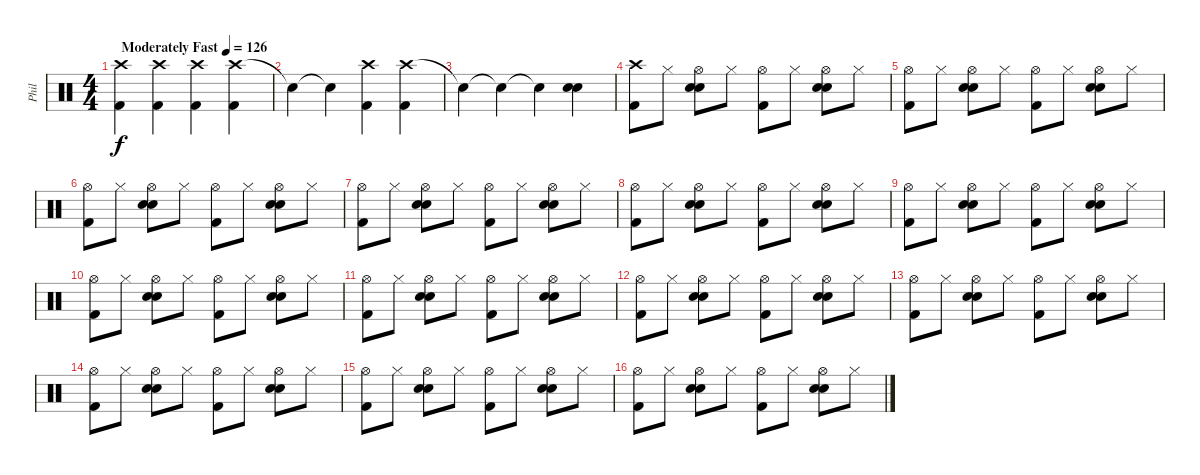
\track ("Phil" "Phil") {instrument percussion}
\staff {score}
\articulation defaults
\ts (4 4)
\tempo (126 "Moderately Fast")
\clef neutral
\ks c
("Crash high (hit)" "Kick (hit) 2").4{dy f} ("Crash high (hit)" "Kick (hit) 2").4 ("Crash high (hit)" "Kick (hit) 2").4 ("Crash high (hit)" "Kick (hit) 2").4 |
"Snare (hit)"{t}.4 "Snare (hit)"{t}.4 ("Crash high (hit)" "Kick (hit) 2").4 ("Crash high (hit)" "Kick (hit) 2").4 |
"Snare (hit)"{t}.4 "Snare (hit)"{t}.4 "Snare (hit)"{t}.4 ("Snare (hit) 2" "Electric Snare (hit)").4 |
("Crash high (hit)" "Kick (hit) 2").8 "Hi-Hat (closed)".8 ("Hi-Hat (open)" "Snare (hit) 2" "Electric Snare (hit)").8 "Hi-Hat (closed)".8 ("Hi-Hat (open)" "Kick (hit) 2").8 "Hi-Hat (closed)".8 ("Hi-Hat (open)" "Snare (hit) 2" "Electric Snare (hit)").8 "Hi-Hat (closed)".8 |
("Hi-Hat (open)" "Kick (hit) 2").8 "Hi-Hat (closed)".8 ("Hi-Hat (open)" "Snare (hit) 2" "Electric Snare (hit)").8 "Hi-Hat (closed)".8 ("Hi-Hat (open)" "Kick (hit) 2").8 "Hi-Hat (closed)".8 ("Hi-Hat (open)" "Snare (hit) 2" "Electric Snare (hit)").8 "Hi-Hat (closed)".8 |
("Hi-Hat (open)" "Kick (hit) 2").8 "Hi-Hat (closed)".8 ("Hi-Hat (open)" "Snare (hit) 2" "Electric Snare (hit)").8 "Hi-Hat (closed)".8 ("Hi-Hat (open)" "Kick (hit) 2").8 "Hi-Hat (closed)".8 ("Hi-Hat (open)" "Snare (hit) 2" "Electric Snare (hit)").8 "Hi-Hat (closed)".8 |
("Hi-Hat (open)" "Kick (hit) 2").8 "Hi-Hat (closed)".8 ("Hi-Hat (open)" "Snare (hit) 2" "Electric Snare (hit)").8 "Hi-Hat (closed)".8 ("Hi-Hat (open)" "Kick (hit) 2").8 "Hi-Hat (closed)".8 ("Hi-Hat (open)" "Snare (hit) 2" "Electric Snare (hit)").8 "Hi-Hat (closed)".8 |
("Hi-Hat (open)" "Kick (hit) 2").8 "Hi-Hat (closed)".8 ("Hi-Hat (open)" "Snare (hit) 2" "Electric Snare (hit)").8 "Hi-Hat (closed)".8 ("Hi-Hat (open)" "Kick (hit) 2").8 "Hi-Hat (closed)".8 ("Hi-Hat (open)" "Snare (hit) 2" "Electric Snare (hit)").8 "Hi-Hat (closed)".8 |
("Hi-Hat (open)" "Kick (hit) 2").8 "Hi-Hat (closed)".8 ("Hi-Hat (open)" "Snare (hit) 2" "Electric Snare (hit)").8 "Hi-Hat (closed)".8 ("Hi-Hat (open)" "Kick (hit) 2").8 "Hi-Hat (closed)".8 ("Hi-Hat (open)" "Snare (hit) 2" "Electric Snare (hit)").8 "Hi-Hat (closed)".8 |
("Hi-Hat (open)" "Kick (hit) 2").8 "Hi-Hat (closed)".8 ("Hi-Hat (open)" "Snare (hit) 2" "Electric Snare (hit)").8 "Hi-Hat (closed)".8 ("Hi-Hat (open)" "Kick (hit) 2").8 "Hi-Hat (closed)".8 ("Hi-Hat (open)" "Snare (hit) 2" "Electric Snare (hit)").8 "Hi-Hat (closed)".8 |
("Hi-Hat (open)" "Kick (hit) 2").8 "Hi-Hat (closed)".8 ("Hi-Hat (open)" "Snare (hit) 2" "Electric Snare (hit)").8 "Hi-Hat (closed)".8 ("Hi-Hat (open)" "Kick (hit) 2").8 "Hi-Hat (closed)".8 ("Hi-Hat (open)" "Snare (hit) 2" "Electric Snare (hit)").8 "Hi-Hat (closed)".8 |
("Hi-Hat (open)" "Kick (hit) 2").8 "Hi-Hat (closed)".8 ("Hi-Hat (open)" "Snare (hit) 2" "Electric Snare (hit)").8 "Hi-Hat (closed)".8 ("Hi-Hat (open)" "Kick (hit) 2").8 "Hi-Hat (closed)".8 ("Hi-Hat (open)" "Snare (hit) 2" "Electric Snare (hit)").8 "Hi-Hat (closed)".8 |
("Hi-Hat (open)" "Kick (hit) 2").8 "Hi-Hat (closed)".8 ("Hi-Hat (open)" "Snare (hit) 2" "Electric Snare (hit)").8 "Hi-Hat (closed)".8 ("Hi-Hat (open)" "Kick (hit) 2").8 "Hi-Hat (closed)".8 ("Hi-Hat (open)" "Snare (hit) 2" "Electric Snare (hit)").8 "Hi-Hat (closed)".8 |
("Hi-Hat (open)" "Kick (hit) 2").8 "Hi-Hat (closed)".8 ("Hi-Hat (open)" "Snare (hit) 2" "Electric Snare (hit)").8 "Hi-Hat (closed)".8 ("Hi-Hat (open)" "Kick (hit) 2").8 "Hi-Hat (closed)".8 ("Hi-Hat (open)" "Snare (hit) 2" "Electric Snare (hit)").8 "Hi-Hat (closed)".8 |
("Hi-Hat (open)" "Kick (hit) 2").8 "Hi-Hat (closed)".8 ("Hi-Hat (open)" "Snare (hit) 2" "Electric Snare (hit)").8 "Hi-Hat (closed)".8 ("Hi-Hat (open)" "Kick (hit) 2").8 "Hi-Hat (closed)".8 ("Hi-Hat (open)" "Snare (hit) 2" "Electric Snare (hit)").8 "Hi-Hat (closed)".8 |
("Hi-Hat (open)" "Kick (hit) 2").8 "Hi-Hat (closed)".8 ("Hi-Hat (open)" "Snare (hit) 2" "Electric Snare (hit)").8 "Hi-Hat (closed)".8 ("Hi-Hat (open)" "Kick (hit) 2").8 "Hi-Hat (closed)".8 ("Hi-Hat (open)" "Snare (hit) 2" "Electric Snare (hit)").8 "Hi-Hat (closed)".8
